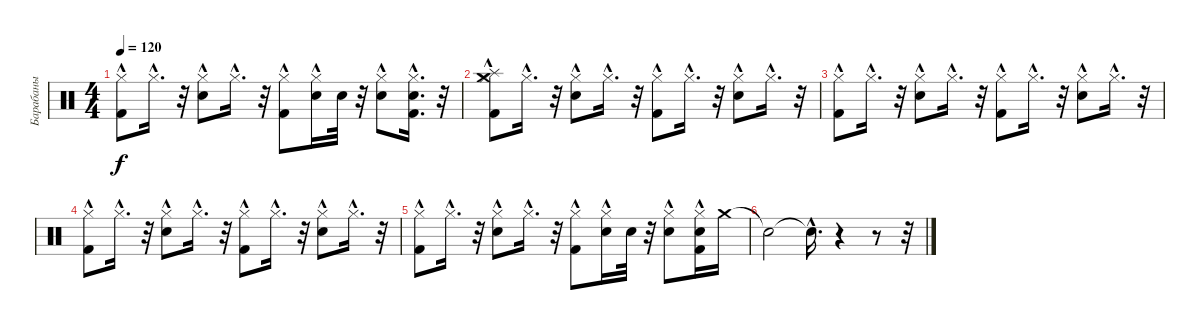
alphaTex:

\track ("Барабаны" "Барабаны") {instrument percussion}
\staff {score}
\articulation defaults
\ts (4 4)
\tempo 120
\clef neutral
\ks c
("Kick (hit) 2" "Hi-Hat (closed)"{hac}).8{dy f} "Hi-Hat (closed)"{hac}.16{d} r.32 ("Electric Snare (hit)" "Hi-Hat (closed)"{hac}).8 "Hi-Hat (closed)"{hac}.16{d} r.32 ("Kick (hit) 2" "Hi-Hat (closed)"{hac}).8 ("Electric Snare (hit)" "Hi-Hat (closed)"{hac}).16 "Snare (hit) 2".32 r.32 ("Electric Snare (hit)" "Hi-Hat (closed)"{hac}).8 ("Electric Snare (hit)" "Kick (hit) 2" "Hi-Hat (closed)"{hac}).16{d} r.32 |
("Crash medium (hit)" "Splash (hit)" "Kick (hit) 2" "Hi-Hat (closed)"{hac}).8 "Hi-Hat (closed)"{hac}.16{d} r.32 ("Electric Snare (hit)" "Hi-Hat (closed)"{hac}).8 "Hi-Hat (closed)"{hac}.16{d} r.32 ("Kick (hit) 2" "Hi-Hat (closed)"{hac}).8 "Hi-Hat (closed)"{hac}.16{d} r.32 ("Electric Snare (hit)" "Hi-Hat (closed)"{hac}).8 "Hi-Hat (closed)"{hac}.16{d} r.32 |
("Kick (hit) 2" "Hi-Hat (closed)"{hac}).8 "Hi-Hat (closed)"{hac}.16{d} r.32 ("Electric Snare (hit)" "Hi-Hat (closed)"{hac}).8 "Hi-Hat (closed)"{hac}.16{d} r.32 ("Kick (hit) 2" "Hi-Hat (closed)"{hac}).8 "Hi-Hat (closed)"{hac}.16{d} r.32 ("Electric Snare (hit)" "Hi-Hat (closed)"{hac}).8 "Hi-Hat (closed)"{hac}.16{d} r.32 |
("Kick (hit) 2" "Hi-Hat (closed)"{hac}).8 "Hi-Hat (closed)"{hac}.16{d} r.32 ("Electric Snare (hit)" "Hi-Hat (closed)"{hac}).8 "Hi-Hat (closed)"{hac}.16{d} r.32 ("Kick (hit) 2" "Hi-Hat (closed)"{hac}).8 "Hi-Hat (closed)"{hac}.16{d} r.32 ("Electric Snare (hit)" "Hi-Hat (closed)"{hac}).8 "Hi-Hat (closed)"{hac}.16{d} r.32 |
("Kick (hit) 2" "Hi-Hat (closed)"{hac}).8 "Hi-Hat (closed)"{hac}.16{d} r.32 ("Electric Snare (hit)" "Hi-Hat (closed)"{hac}).8 "Hi-Hat (closed)"{hac}.16{d} r.32 ("Kick (hit) 2" "Hi-Hat (closed)"{hac}).8 ("Electric Snare (hit)" "Hi-Hat (closed)"{hac}).16 "Snare (hit) 2".32 r.32 ("Electric Snare (hit)" "Hi-Hat (closed)"{hac}).8 ("Electric Snare (hit)" "Kick (hit) 2" "Hi-Hat (closed)"{hac}).16 "Crash medium (hit)".16 |
"Snare (hit)"{t}.2 "Snare (hit)"{hac t}.16{d} r.4 r.8 r.32
